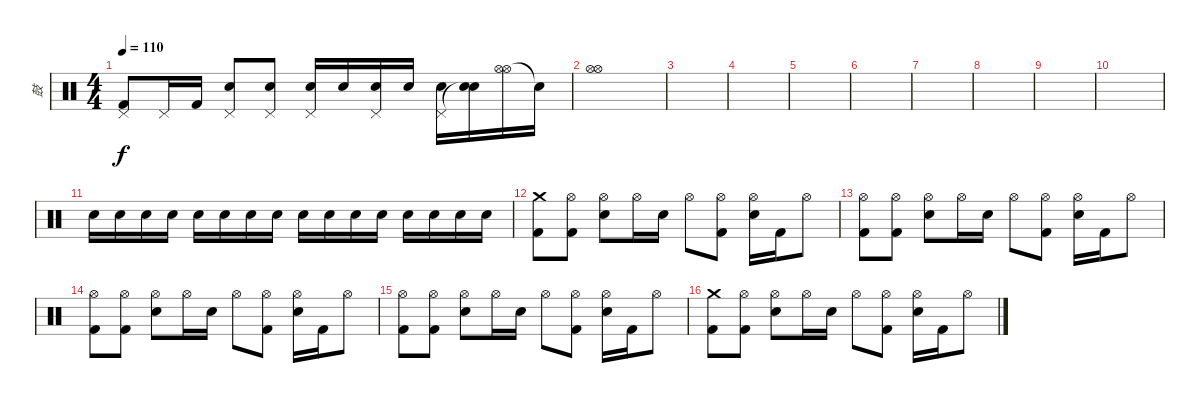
\track ("鼓" "鼓") {instrument percussion}
\staff {score}
\articulation defaults
\ts (4 4)
\tempo 110
\clef neutral
\ks c
("Pedal Hi-Hat (hit)" "Kick (hit) 2").8{dy f} "Pedal Hi-Hat (hit)".16 "Kick (hit) 2".16 ("Pedal Hi-Hat (hit)" "Electric Snare (hit)").8 ("Pedal Hi-Hat (hit)" "Electric Snare (hit)").8 ("Pedal Hi-Hat (hit)" "Electric Snare (hit)").16 "Electric Snare (hit)".16 ("Pedal Hi-Hat (hit)" "Electric Snare (hit)").16 "Electric Snare (hit)".16 ("Pedal Hi-Hat (hit)" "Electric Snare (hit)").16 ("Snare (hit)"{t} "Electric Snare (hit)").16 ("Hi-Hat (open)" "Hi-Hat (open)").16 "Snare (hit)"{t}.16 |
("Hi-Hat (open)" "Hi-Hat (open)").1 |
|
|
|
|
|
|
|
|
"Electric Snare (hit)".16 "Electric Snare (hit)".16 "Electric Snare (hit)".16 "Electric Snare (hit)".16 "Electric Snare (hit)".16 "Electric Snare (hit)".16 "Electric Snare (hit)".16 "Electric Snare (hit)".16 "Electric Snare (hit)".16 "Electric Snare (hit)".16 "Electric Snare (hit)".16 "Electric Snare (hit)".16 "Electric Snare (hit)".16 "Electric Snare (hit)".16 "Electric Snare (hit)".16 "Electric Snare (hit)".16 |
("Crash medium (hit)" "Kick (hit) 2").8 ("Hi-Hat (open)" "Kick (hit) 2").8 ("Hi-Hat (open)" "Electric Snare (hit)").8 "Hi-Hat (open)".16 "Electric Snare (hit)".16 "Hi-Hat (open)".8 ("Hi-Hat (open)" "Kick (hit) 2").8 ("Hi-Hat (open)" "Electric Snare (hit)").16 "Kick (hit) 2".16 "Hi-Hat (open)".8 |
("Hi-Hat (open)" "Kick (hit) 2").8 ("Hi-Hat (open)" "Kick (hit) 2").8 ("Hi-Hat (open)" "Electric Snare (hit)").8 "Hi-Hat (open)".16 "Electric Snare (hit)".16 "Hi-Hat (open)".8 ("Hi-Hat (open)" "Kick (hit) 2").8 ("Hi-Hat (open)" "Electric Snare (hit)").16 "Kick (hit) 2".16 "Hi-Hat (open)".8 |
("Hi-Hat (open)" "Kick (hit) 2").8 ("Hi-Hat (open)" "Kick (hit) 2").8 ("Hi-Hat (open)" "Electric Snare (hit)").8 "Hi-Hat (open)".16 "Electric Snare (hit)".16 "Hi-Hat (open)".8 ("Hi-Hat (open)" "Kick (hit) 2").8 ("Hi-Hat (open)" "Electric Snare (hit)").16 "Kick (hit) 2".16 "Hi-Hat (open)".8 |
("Hi-Hat (open)" "Kick (hit) 2").8 ("Hi-Hat (open)" "Kick (hit) 2").8 ("Hi-Hat (open)" "Electric Snare (hit)").8 "Hi-Hat (open)".16 "Electric Snare (hit)".16 "Hi-Hat (open)".8 ("Hi-Hat (open)" "Kick (hit) 2").8 ("Hi-Hat (open)" "Electric Snare (hit)").16 "Kick (hit) 2".16 "Hi-Hat (open)".8 |
("Crash medium (hit)" "Kick (hit) 2").8 ("Hi-Hat (open)" "Kick (hit) 2").8 ("Hi-Hat (open)" "Electric Snare (hit)").8 "Hi-Hat (open)".16 "Electric Snare (hit)".16 "Hi-Hat (open)".8 ("Hi-Hat (open)" "Kick (hit) 2").8 ("Hi-Hat (open)" "Electric Snare (hit)").16 "Kick (hit) 2".16 "Hi-Hat (open)".8
